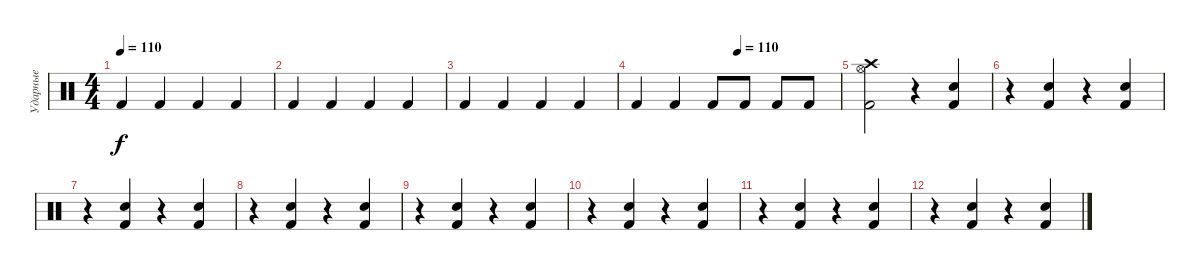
\track ("Ударные" "Ударные") {instrument percussion}
\staff {score}
\articulation defaults
\ts (4 4)
\tempo 110
\tempo 100
\tempo 110
\clef neutral
\ks c "Kick (hit) 2".4{dy f} "Kick (hit) 2".4 "Kick (hit) 2".4 "Kick (hit) 2".4
|
"Kick (hit) 2".4 "Kick (hit) 2".4 "Kick (hit) 2".4 "Kick (hit) 2".4 |
"Kick (hit) 2".4 "Kick (hit) 2".4 "Kick (hit) 2".4 "Kick (hit) 2".4 |
\tempo (110 0.5)
"Kick (hit) 2".4 "Kick (hit) 2".4 "Kick (hit) 2".8 "Kick (hit) 2".8 "Kick (hit) 2".8 "Kick (hit) 2".8 |
("Kick (hit) 2" "Hi-Hat (open)" "Crash high (hit)").2 r.4 ("Kick (hit) 2" "Electric Snare (hit)").4 |
r.4 ("Kick (hit) 2" "Electric Snare (hit)").4 r.4 ("Kick (hit) 2" "Electric Snare (hit)").4 |
r.4 ("Kick (hit) 2" "Electric Snare (hit)").4 r.4 ("Kick (hit) 2" "Electric Snare (hit)").4 |
r.4 ("Kick (hit) 2" "Electric Snare (hit)").4 r.4 ("Kick (hit) 2" "Electric Snare (hit)").4 |
r.4 ("Kick (hit) 2" "Electric Snare (hit)").4 r.4 ("Kick (hit) 2" "Electric Snare (hit)").4 |
r.4 ("Kick (hit) 2" "Electric Snare (hit)").4 r.4 ("Kick (hit) 2" "Electric Snare (hit)").4 |
r.4 ("Kick (hit) 2" "Electric Snare (hit)").4 r.4 ("Kick (hit) 2" "Electric Snare (hit)").4 |
r.4 ("Kick (hit) 2" "Electric Snare (hit)").4 r.4 ("Kick (hit) 2" "Electric Snare (hit)").4
